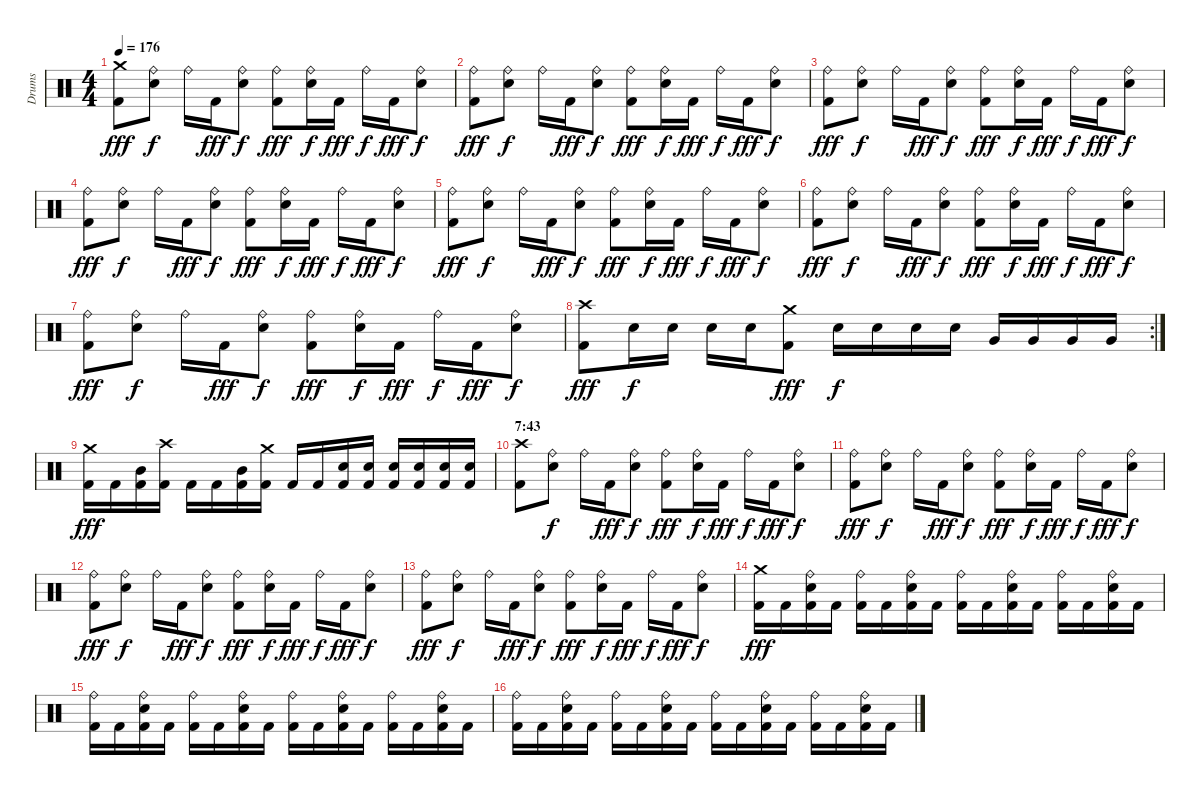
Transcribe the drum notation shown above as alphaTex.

\track ("Drums" "Drums") {instrument percussion}
\staff {score}
\articulation defaults
\ts (4 4)
\tempo 176
\clef neutral
\ks c
("Crash medium (hit)" "Kick (hit) 2").8{dy fff} ("Ride (bell)" "Snare (hit) 2").8{dy f} "Ride (bell)".16 "Kick (hit) 2".16{dy fff} ("Ride (bell)" "Snare (hit) 2").8{dy f} ("Ride (bell)" "Kick (hit) 2").8{dy fff} ("Ride (bell)" "Snare (hit) 2").16{dy f} "Kick (hit) 2".16{dy fff} "Ride (bell)".16{dy f} "Kick (hit) 2".16{dy fff} ("Ride (bell)" "Snare (hit) 2").8{dy f} |
("Ride (bell)" "Kick (hit) 2").8{dy fff} ("Ride (bell)" "Snare (hit) 2").8{dy f} "Ride (bell)".16 "Kick (hit) 2".16{dy fff} ("Ride (bell)" "Snare (hit) 2").8{dy f} ("Ride (bell)" "Kick (hit) 2").8{dy fff} ("Ride (bell)" "Snare (hit) 2").16{dy f} "Kick (hit) 2".16{dy fff} "Ride (bell)".16{dy f} "Kick (hit) 2".16{dy fff} ("Ride (bell)" "Snare (hit) 2").8{dy f} |
("Ride (bell)" "Kick (hit) 2").8{dy fff} ("Ride (bell)" "Snare (hit) 2").8{dy f} "Ride (bell)".16 "Kick (hit) 2".16{dy fff} ("Ride (bell)" "Snare (hit) 2").8{dy f} ("Ride (bell)" "Kick (hit) 2").8{dy fff} ("Ride (bell)" "Snare (hit) 2").16{dy f} "Kick (hit) 2".16{dy fff} "Ride (bell)".16{dy f} "Kick (hit) 2".16{dy fff} ("Ride (bell)" "Snare (hit) 2").8{dy f} |
("Ride (bell)" "Kick (hit) 2").8{dy fff} ("Ride (bell)" "Snare (hit) 2").8{dy f} "Ride (bell)".16 "Kick (hit) 2".16{dy fff} ("Ride (bell)" "Snare (hit) 2").8{dy f} ("Ride (bell)" "Kick (hit) 2").8{dy fff} ("Ride (bell)" "Snare (hit) 2").16{dy f} "Kick (hit) 2".16{dy fff} "Ride (bell)".16{dy f} "Kick (hit) 2".16{dy fff} ("Ride (bell)" "Snare (hit) 2").8{dy f} |
("Ride (bell)" "Kick (hit) 2").8{dy fff} ("Ride (bell)" "Snare (hit) 2").8{dy f} "Ride (bell)".16 "Kick (hit) 2".16{dy fff} ("Ride (bell)" "Snare (hit) 2").8{dy f} ("Ride (bell)" "Kick (hit) 2").8{dy fff} ("Ride (bell)" "Snare (hit) 2").16{dy f} "Kick (hit) 2".16{dy fff} "Ride (bell)".16{dy f} "Kick (hit) 2".16{dy fff} ("Ride (bell)" "Snare (hit) 2").8{dy f} |
("Ride (bell)" "Kick (hit) 2").8{dy fff} ("Ride (bell)" "Snare (hit) 2").8{dy f} "Ride (bell)".16 "Kick (hit) 2".16{dy fff} ("Ride (bell)" "Snare (hit) 2").8{dy f} ("Ride (bell)" "Kick (hit) 2").8{dy fff} ("Ride (bell)" "Snare (hit) 2").16{dy f} "Kick (hit) 2".16{dy fff} "Ride (bell)".16{dy f} "Kick (hit) 2".16{dy fff} ("Ride (bell)" "Snare (hit) 2").8{dy f} |
("Ride (bell)" "Kick (hit) 2").8{dy fff} ("Ride (bell)" "Snare (hit) 2").8{dy f} "Ride (bell)".16 "Kick (hit) 2".16{dy fff} ("Ride (bell)" "Snare (hit) 2").8{dy f} ("Ride (bell)" "Kick (hit) 2").8{dy fff} ("Ride (bell)" "Snare (hit) 2").16{dy f} "Kick (hit) 2".16{dy fff} "Ride (bell)".16{dy f} "Kick (hit) 2".16{dy fff} ("Ride (bell)" "Snare (hit) 2").8{dy f} |
\rc 2
("Crash high (hit)" "Kick (hit) 2").8{dy fff} "Snare (hit) 2".16{dy f} "Snare (hit) 2".16 "Snare (hit) 2".16 "Snare (hit) 2".16 ("Crash medium (hit)" "Kick (hit) 2").8{dy fff} "Snare (hit) 2".16{dy f} "Snare (hit) 2".16 "Snare (hit) 2".16 "Snare (hit) 2".16 "Very Low Tom (hit)".16 "Very Low Tom (hit)".16 "Very Low Tom (hit)".16 "Very Low Tom (hit)".16 |
("Crash medium (hit)" "Kick (hit) 2").16{dy fff} "Kick (hit) 2".16 ("Mid Tom (hit)" "Kick (hit) 2").16 ("Crash high (hit)" "Kick (hit) 2").16 "Kick (hit) 2".16 "Kick (hit) 2".16 ("Mid Tom (hit)" "Kick (hit) 2").16 ("Crash medium (hit)" "Kick (hit) 2").16 "Kick (hit) 2".16 "Kick (hit) 2".16 ("Snare (hit) 2" "Kick (hit) 2").16 ("Snare (hit) 2" "Kick (hit) 2").16 ("Snare (hit) 2" "Kick (hit) 2").16 ("Snare (hit) 2" "Kick (hit) 2").16 ("Snare (hit) 2" "Kick (hit) 2").16 ("Snare (hit) 2" "Kick (hit) 2").16 |
\section ("" "7:43")
("Crash high (hit)" "Kick (hit) 2").8 ("Ride (bell)" "Snare (hit) 2").8{dy f} "Ride (bell)".16 "Kick (hit) 2".16{dy fff} ("Ride (bell)" "Snare (hit) 2").8{dy f} ("Ride (bell)" "Kick (hit) 2").8{dy fff} ("Ride (bell)" "Snare (hit) 2").16{dy f} "Kick (hit) 2".16{dy fff} "Ride (bell)".16{dy f} "Kick (hit) 2".16{dy fff} ("Ride (bell)" "Snare (hit) 2").8{dy f} |
("Ride (bell)" "Kick (hit) 2").8{dy fff} ("Ride (bell)" "Snare (hit) 2").8{dy f} "Ride (bell)".16 "Kick (hit) 2".16{dy fff} ("Ride (bell)" "Snare (hit) 2").8{dy f} ("Ride (bell)" "Kick (hit) 2").8{dy fff} ("Ride (bell)" "Snare (hit) 2").16{dy f} "Kick (hit) 2".16{dy fff} "Ride (bell)".16{dy f} "Kick (hit) 2".16{dy fff} ("Ride (bell)" "Snare (hit) 2").8{dy f} |
("Ride (bell)" "Kick (hit) 2").8{dy fff} ("Ride (bell)" "Snare (hit) 2").8{dy f} "Ride (bell)".16 "Kick (hit) 2".16{dy fff} ("Ride (bell)" "Snare (hit) 2").8{dy f} ("Ride (bell)" "Kick (hit) 2").8{dy fff} ("Ride (bell)" "Snare (hit) 2").16{dy f} "Kick (hit) 2".16{dy fff} "Ride (bell)".16{dy f} "Kick (hit) 2".16{dy fff} ("Ride (bell)" "Snare (hit) 2").8{dy f} |
("Ride (bell)" "Kick (hit) 2").8{dy fff} ("Ride (bell)" "Snare (hit) 2").8{dy f} "Ride (bell)".16 "Kick (hit) 2".16{dy fff} ("Ride (bell)" "Snare (hit) 2").8{dy f} ("Ride (bell)" "Kick (hit) 2").8{dy fff} ("Ride (bell)" "Snare (hit) 2").16{dy f} "Kick (hit) 2".16{dy fff} "Ride (bell)".16{dy f} "Kick (hit) 2".16{dy fff} ("Ride (bell)" "Snare (hit) 2").8{dy f} |
("Crash medium (hit)" "Kick (hit) 2").16{dy fff} "Kick (hit) 2".16 ("Ride (bell)" "Snare (hit) 2" "Kick (hit) 2").16 "Kick (hit) 2".16 ("Ride (bell)" "Kick (hit) 2").16 "Kick (hit) 2".16 ("Ride (bell)" "Snare (hit) 2" "Kick (hit) 2").16 "Kick (hit) 2".16 ("Ride (bell)" "Kick (hit) 2").16 "Kick (hit) 2".16 ("Ride (bell)" "Snare (hit) 2" "Kick (hit) 2").16 "Kick (hit) 2".16 ("Ride (bell)" "Kick (hit) 2").16 "Kick (hit) 2".16 ("Ride (bell)" "Snare (hit) 2" "Kick (hit) 2").16 "Kick (hit) 2".16 |
("Ride (bell)" "Kick (hit) 2").16 "Kick (hit) 2".16 ("Ride (bell)" "Snare (hit) 2" "Kick (hit) 2").16 "Kick (hit) 2".16 ("Ride (bell)" "Kick (hit) 2").16 "Kick (hit) 2".16 ("Ride (bell)" "Snare (hit) 2" "Kick (hit) 2").16 "Kick (hit) 2".16 ("Ride (bell)" "Kick (hit) 2").16 "Kick (hit) 2".16 ("Ride (bell)" "Snare (hit) 2" "Kick (hit) 2").16 "Kick (hit) 2".16 ("Ride (bell)" "Kick (hit) 2").16 "Kick (hit) 2".16 ("Ride (bell)" "Snare (hit) 2" "Kick (hit) 2").16 "Kick (hit) 2".16 |
("Ride (bell)" "Kick (hit) 2").16 "Kick (hit) 2".16 ("Ride (bell)" "Snare (hit) 2" "Kick (hit) 2").16 "Kick (hit) 2".16 ("Ride (bell)" "Kick (hit) 2").16 "Kick (hit) 2".16 ("Ride (bell)" "Snare (hit) 2" "Kick (hit) 2").16 "Kick (hit) 2".16 ("Ride (bell)" "Kick (hit) 2").16 "Kick (hit) 2".16 ("Ride (bell)" "Snare (hit) 2" "Kick (hit) 2").16 "Kick (hit) 2".16 ("Ride (bell)" "Kick (hit) 2").16 "Kick (hit) 2".16 ("Ride (bell)" "Snare (hit) 2" "Kick (hit) 2").16 "Kick (hit) 2".16
